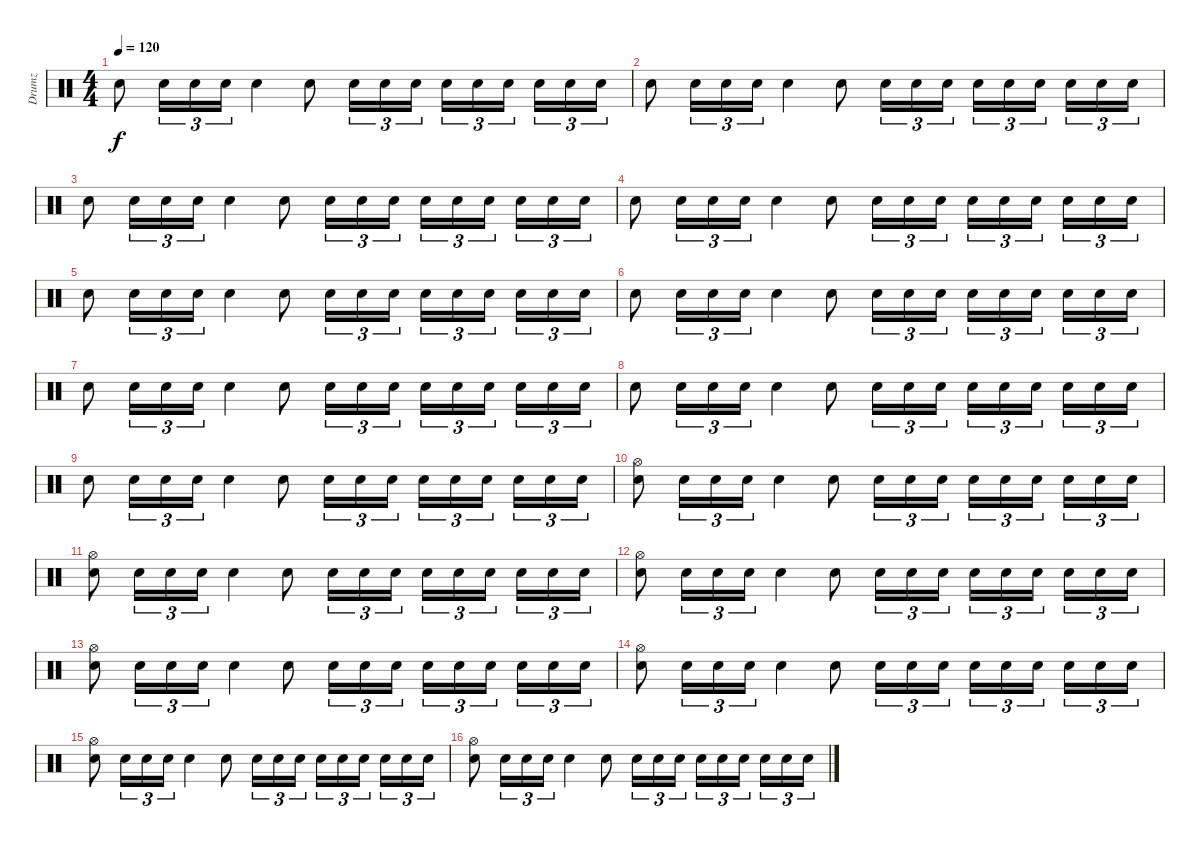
\track ("Drumz" "Drumz") {instrument percussion}
\staff {score}
\articulation defaults
\ts (4 4)
\tempo 120
\clef neutral
\ks c "Snare (hit) 2".8{dy f} "Snare (hit) 2".16{tu (3 2)} "Snare (hit) 2".16{tu (3 2)} "Snare (hit) 2".16{tu (3 2)} "Snare (hit) 2".4 "Snare (hit) 2".8 "Snare (hit) 2".16{tu (3 2)} "Snare (hit) 2".16{tu (3 2)} "Snare (hit) 2".16{tu (3 2)} "Snare (hit) 2".16{tu (3 2)} "Snare (hit) 2".16{tu (3 2)} "Snare (hit) 2".16{tu (3 2)} "Snare (hit) 2".16{tu (3 2)} "Snare (hit) 2".16{tu (3 2)} "Snare (hit) 2".16{tu (3 2)}
|
"Snare (hit) 2".8 "Snare (hit) 2".16{tu (3 2)} "Snare (hit) 2".16{tu (3 2)} "Snare (hit) 2".16{tu (3 2)} "Snare (hit) 2".4 "Snare (hit) 2".8 "Snare (hit) 2".16{tu (3 2)} "Snare (hit) 2".16{tu (3 2)} "Snare (hit) 2".16{tu (3 2)} "Snare (hit) 2".16{tu (3 2)} "Snare (hit) 2".16{tu (3 2)} "Snare (hit) 2".16{tu (3 2)} "Snare (hit) 2".16{tu (3 2)} "Snare (hit) 2".16{tu (3 2)} "Snare (hit) 2".16{tu (3 2)} |
"Snare (hit) 2".8 "Snare (hit) 2".16{tu (3 2)} "Snare (hit) 2".16{tu (3 2)} "Snare (hit) 2".16{tu (3 2)} "Snare (hit) 2".4 "Snare (hit) 2".8 "Snare (hit) 2".16{tu (3 2)} "Snare (hit) 2".16{tu (3 2)} "Snare (hit) 2".16{tu (3 2)} "Snare (hit) 2".16{tu (3 2)} "Snare (hit) 2".16{tu (3 2)} "Snare (hit) 2".16{tu (3 2)} "Snare (hit) 2".16{tu (3 2)} "Snare (hit) 2".16{tu (3 2)} "Snare (hit) 2".16{tu (3 2)} |
"Snare (hit) 2".8 "Snare (hit) 2".16{tu (3 2)} "Snare (hit) 2".16{tu (3 2)} "Snare (hit) 2".16{tu (3 2)} "Snare (hit) 2".4 "Snare (hit) 2".8 "Snare (hit) 2".16{tu (3 2)} "Snare (hit) 2".16{tu (3 2)} "Snare (hit) 2".16{tu (3 2)} "Snare (hit) 2".16{tu (3 2)} "Snare (hit) 2".16{tu (3 2)} "Snare (hit) 2".16{tu (3 2)} "Snare (hit) 2".16{tu (3 2)} "Snare (hit) 2".16{tu (3 2)} "Snare (hit) 2".16{tu (3 2)} |
"Snare (hit) 2".8 "Snare (hit) 2".16{tu (3 2)} "Snare (hit) 2".16{tu (3 2)} "Snare (hit) 2".16{tu (3 2)} "Snare (hit) 2".4 "Snare (hit) 2".8 "Snare (hit) 2".16{tu (3 2)} "Snare (hit) 2".16{tu (3 2)} "Snare (hit) 2".16{tu (3 2)} "Snare (hit) 2".16{tu (3 2)} "Snare (hit) 2".16{tu (3 2)} "Snare (hit) 2".16{tu (3 2)} "Snare (hit) 2".16{tu (3 2)} "Snare (hit) 2".16{tu (3 2)} "Snare (hit) 2".16{tu (3 2)} |
"Snare (hit) 2".8 "Snare (hit) 2".16{tu (3 2)} "Snare (hit) 2".16{tu (3 2)} "Snare (hit) 2".16{tu (3 2)} "Snare (hit) 2".4 "Snare (hit) 2".8 "Snare (hit) 2".16{tu (3 2)} "Snare (hit) 2".16{tu (3 2)} "Snare (hit) 2".16{tu (3 2)} "Snare (hit) 2".16{tu (3 2)} "Snare (hit) 2".16{tu (3 2)} "Snare (hit) 2".16{tu (3 2)} "Snare (hit) 2".16{tu (3 2)} "Snare (hit) 2".16{tu (3 2)} "Snare (hit) 2".16{tu (3 2)} |
"Snare (hit) 2".8 "Snare (hit) 2".16{tu (3 2)} "Snare (hit) 2".16{tu (3 2)} "Snare (hit) 2".16{tu (3 2)} "Snare (hit) 2".4 "Snare (hit) 2".8 "Snare (hit) 2".16{tu (3 2)} "Snare (hit) 2".16{tu (3 2)} "Snare (hit) 2".16{tu (3 2)} "Snare (hit) 2".16{tu (3 2)} "Snare (hit) 2".16{tu (3 2)} "Snare (hit) 2".16{tu (3 2)} "Snare (hit) 2".16{tu (3 2)} "Snare (hit) 2".16{tu (3 2)} "Snare (hit) 2".16{tu (3 2)} |
"Snare (hit) 2".8 "Snare (hit) 2".16{tu (3 2)} "Snare (hit) 2".16{tu (3 2)} "Snare (hit) 2".16{tu (3 2)} "Snare (hit) 2".4 "Snare (hit) 2".8 "Snare (hit) 2".16{tu (3 2)} "Snare (hit) 2".16{tu (3 2)} "Snare (hit) 2".16{tu (3 2)} "Snare (hit) 2".16{tu (3 2)} "Snare (hit) 2".16{tu (3 2)} "Snare (hit) 2".16{tu (3 2)} "Snare (hit) 2".16{tu (3 2)} "Snare (hit) 2".16{tu (3 2)} "Snare (hit) 2".16{tu (3 2)} |
"Snare (hit) 2".8 "Snare (hit) 2".16{tu (3 2)} "Snare (hit) 2".16{tu (3 2)} "Snare (hit) 2".16{tu (3 2)} "Snare (hit) 2".4 "Snare (hit) 2".8 "Snare (hit) 2".16{tu (3 2)} "Snare (hit) 2".16{tu (3 2)} "Snare (hit) 2".16{tu (3 2)} "Snare (hit) 2".16{tu (3 2)} "Snare (hit) 2".16{tu (3 2)} "Snare (hit) 2".16{tu (3 2)} "Snare (hit) 2".16{tu (3 2)} "Snare (hit) 2".16{tu (3 2)} "Snare (hit) 2".16{tu (3 2)} |
("Hi-Hat (open)" "Snare (hit) 2").8 "Snare (hit) 2".16{tu (3 2)} "Snare (hit) 2".16{tu (3 2)} "Snare (hit) 2".16{tu (3 2)} "Snare (hit) 2".4 "Snare (hit) 2".8 "Snare (hit) 2".16{tu (3 2)} "Snare (hit) 2".16{tu (3 2)} "Snare (hit) 2".16{tu (3 2)} "Snare (hit) 2".16{tu (3 2)} "Snare (hit) 2".16{tu (3 2)} "Snare (hit) 2".16{tu (3 2)} "Snare (hit) 2".16{tu (3 2)} "Snare (hit) 2".16{tu (3 2)} "Snare (hit) 2".16{tu (3 2)} |
("Hi-Hat (open)" "Snare (hit) 2").8 "Snare (hit) 2".16{tu (3 2)} "Snare (hit) 2".16{tu (3 2)} "Snare (hit) 2".16{tu (3 2)} "Snare (hit) 2".4 "Snare (hit) 2".8 "Snare (hit) 2".16{tu (3 2)} "Snare (hit) 2".16{tu (3 2)} "Snare (hit) 2".16{tu (3 2)} "Snare (hit) 2".16{tu (3 2)} "Snare (hit) 2".16{tu (3 2)} "Snare (hit) 2".16{tu (3 2)} "Snare (hit) 2".16{tu (3 2)} "Snare (hit) 2".16{tu (3 2)} "Snare (hit) 2".16{tu (3 2)} |
("Hi-Hat (open)" "Snare (hit) 2").8 "Snare (hit) 2".16{tu (3 2)} "Snare (hit) 2".16{tu (3 2)} "Snare (hit) 2".16{tu (3 2)} "Snare (hit) 2".4 "Snare (hit) 2".8 "Snare (hit) 2".16{tu (3 2)} "Snare (hit) 2".16{tu (3 2)} "Snare (hit) 2".16{tu (3 2)} "Snare (hit) 2".16{tu (3 2)} "Snare (hit) 2".16{tu (3 2)} "Snare (hit) 2".16{tu (3 2)} "Snare (hit) 2".16{tu (3 2)} "Snare (hit) 2".16{tu (3 2)} "Snare (hit) 2".16{tu (3 2)} |
("Hi-Hat (open)" "Snare (hit) 2").8 "Snare (hit) 2".16{tu (3 2)} "Snare (hit) 2".16{tu (3 2)} "Snare (hit) 2".16{tu (3 2)} "Snare (hit) 2".4 "Snare (hit) 2".8 "Snare (hit) 2".16{tu (3 2)} "Snare (hit) 2".16{tu (3 2)} "Snare (hit) 2".16{tu (3 2)} "Snare (hit) 2".16{tu (3 2)} "Snare (hit) 2".16{tu (3 2)} "Snare (hit) 2".16{tu (3 2)} "Snare (hit) 2".16{tu (3 2)} "Snare (hit) 2".16{tu (3 2)} "Snare (hit) 2".16{tu (3 2)} |
("Hi-Hat (open)" "Snare (hit) 2").8 "Snare (hit) 2".16{tu (3 2)} "Snare (hit) 2".16{tu (3 2)} "Snare (hit) 2".16{tu (3 2)} "Snare (hit) 2".4 "Snare (hit) 2".8 "Snare (hit) 2".16{tu (3 2)} "Snare (hit) 2".16{tu (3 2)} "Snare (hit) 2".16{tu (3 2)} "Snare (hit) 2".16{tu (3 2)} "Snare (hit) 2".16{tu (3 2)} "Snare (hit) 2".16{tu (3 2)} "Snare (hit) 2".16{tu (3 2)} "Snare (hit) 2".16{tu (3 2)} "Snare (hit) 2".16{tu (3 2)} |
("Hi-Hat (open)" "Snare (hit) 2").8 "Snare (hit) 2".16{tu (3 2)} "Snare (hit) 2".16{tu (3 2)} "Snare (hit) 2".16{tu (3 2)} "Snare (hit) 2".4 "Snare (hit) 2".8 "Snare (hit) 2".16{tu (3 2)} "Snare (hit) 2".16{tu (3 2)} "Snare (hit) 2".16{tu (3 2)} "Snare (hit) 2".16{tu (3 2)} "Snare (hit) 2".16{tu (3 2)} "Snare (hit) 2".16{tu (3 2)} "Snare (hit) 2".16{tu (3 2)} "Snare (hit) 2".16{tu (3 2)} "Snare (hit) 2".16{tu (3 2)} |
("Hi-Hat (open)" "Snare (hit) 2").8 "Snare (hit) 2".16{tu (3 2)} "Snare (hit) 2".16{tu (3 2)} "Snare (hit) 2".16{tu (3 2)} "Snare (hit) 2".4 "Snare (hit) 2".8 "Snare (hit) 2".16{tu (3 2)} "Snare (hit) 2".16{tu (3 2)} "Snare (hit) 2".16{tu (3 2)} "Snare (hit) 2".16{tu (3 2)} "Snare (hit) 2".16{tu (3 2)} "Snare (hit) 2".16{tu (3 2)} "Snare (hit) 2".16{tu (3 2)} "Snare (hit) 2".16{tu (3 2)} "Snare (hit) 2".16{tu (3 2)}
